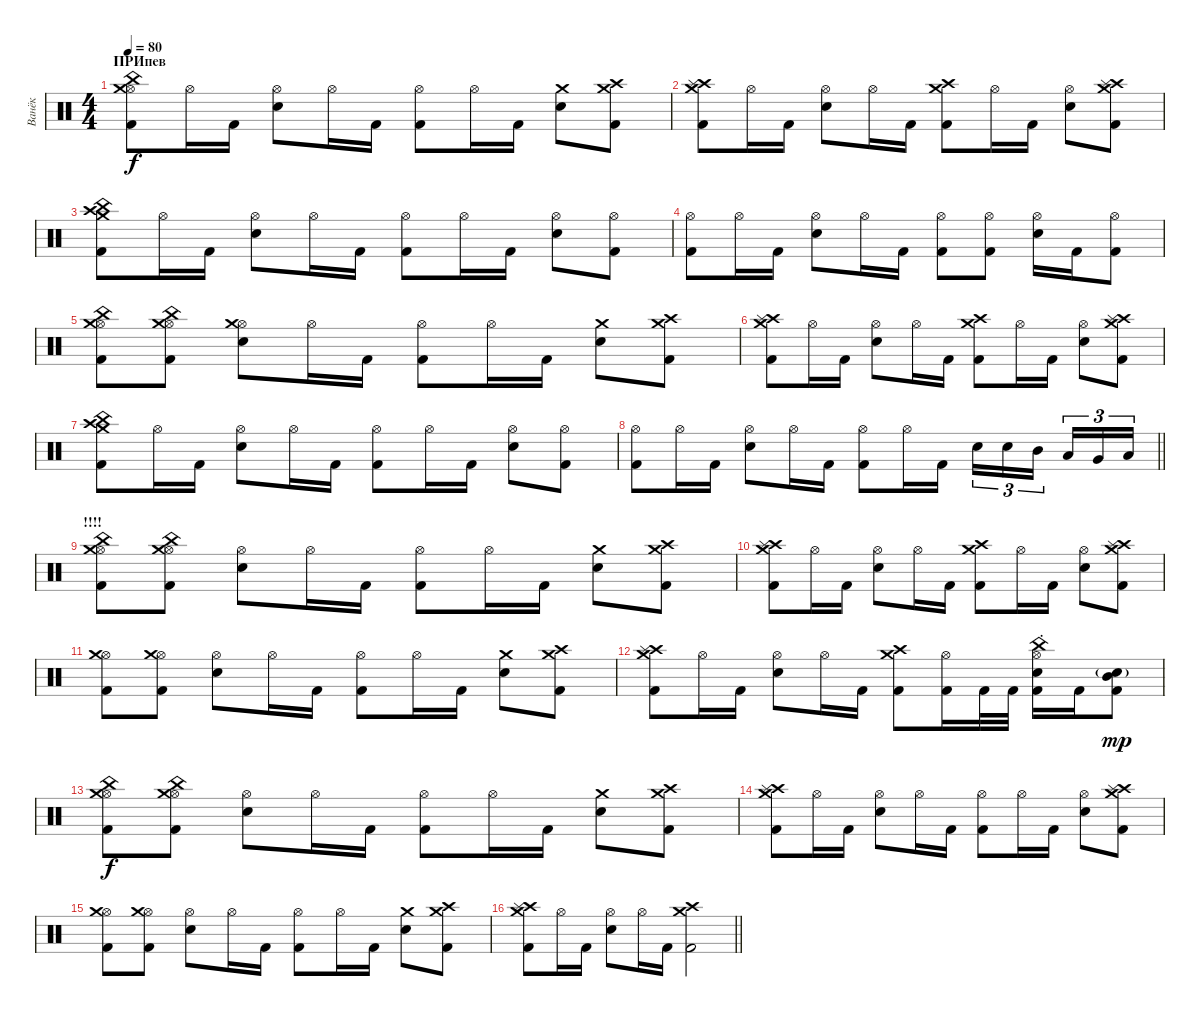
\track ("Ванёк" "Ванёк") {instrument percussion}
\staff {score}
\articulation defaults
\ts (4 4)
\section ("" "ПРИпев")
\tempo 80
\clef neutral
\ks c
("Hi-Hat (open)" "Crash medium (hit)" "China (hit)" "Kick (hit) 2").8{dy f} "Hi-Hat (open)".16 "Kick (hit) 2".16 ("Hi-Hat (open)" "Snare (hit) 2").8 "Hi-Hat (open)".16 "Kick (hit) 2".16 ("Hi-Hat (open)" "Kick (hit) 2").8 "Hi-Hat (open)".16 "Kick (hit) 2".16 ("Crash medium (hit)" "Snare (hit) 2").8 ("Crash high (hit)" "Crash medium (hit)" "Kick (hit) 2").8 |
("Crash high (hit)" "Crash medium (hit)" "Splash (hit)" "Kick (hit) 2").8 "Hi-Hat (open)".16 "Kick (hit) 2".16 ("Hi-Hat (open)" "Snare (hit) 2").8 "Hi-Hat (open)".16 "Kick (hit) 2".16 ("Crash high (hit)" "Crash medium (hit)" "Kick (hit) 2").8 "Hi-Hat (open)".16 "Kick (hit) 2".16 ("Hi-Hat (open)" "Snare (hit) 2").8 ("Crash high (hit)" "Crash medium (hit)" "Splash (hit)" "Kick (hit) 2").8 |
("Crash high (hit)" "Crash medium (hit)" "China (hit)" "Kick (hit) 2").8 "Hi-Hat (open)".16 "Kick (hit) 2".16 ("Hi-Hat (open)" "Snare (hit) 2").8 "Hi-Hat (open)".16 "Kick (hit) 2".16 ("Hi-Hat (open)" "Kick (hit) 2").8 "Hi-Hat (open)".16 "Kick (hit) 2".16 ("Hi-Hat (open)" "Snare (hit) 2").8 ("Hi-Hat (open)" "Kick (hit) 2").8 |
("Hi-Hat (open)" "Kick (hit) 2").8 "Hi-Hat (open)".16 "Kick (hit) 2".16 ("Hi-Hat (open)" "Snare (hit) 2").8 "Hi-Hat (open)".16 "Kick (hit) 2".16 ("Hi-Hat (open)" "Kick (hit) 2").8 ("Hi-Hat (open)" "Kick (hit) 2").8 ("Hi-Hat (open)" "Snare (hit) 2").16 "Kick (hit) 2".16 ("Hi-Hat (open)" "Kick (hit) 2").8 |
("Hi-Hat (open)" "Crash medium (hit)" "China (hit)" "Kick (hit) 2").8 ("Hi-Hat (open)" "Crash medium (hit)" "China (hit)" "Kick (hit) 2").8 ("Hi-Hat (open)" "Crash medium (hit)" "Snare (hit) 2").8 "Hi-Hat (open)".16 "Kick (hit) 2".16 ("Hi-Hat (open)" "Kick (hit) 2").8 "Hi-Hat (open)".16 "Kick (hit) 2".16 ("Crash medium (hit)" "Snare (hit) 2").8 ("Crash high (hit)" "Crash medium (hit)" "Kick (hit) 2").8 |
("Crash high (hit)" "Crash medium (hit)" "Splash (hit)" "Kick (hit) 2").8 "Hi-Hat (open)".16 "Kick (hit) 2".16 ("Hi-Hat (open)" "Snare (hit) 2").8 "Hi-Hat (open)".16 "Kick (hit) 2".16 ("Crash high (hit)" "Crash medium (hit)" "Kick (hit) 2").8 "Hi-Hat (open)".16 "Kick (hit) 2".16 ("Hi-Hat (open)" "Snare (hit) 2").8 ("Crash high (hit)" "Crash medium (hit)" "Splash (hit)" "Kick (hit) 2").8 |
("Crash high (hit)" "Crash medium (hit)" "China (hit)" "Kick (hit) 2").8 "Hi-Hat (open)".16 "Kick (hit) 2".16 ("Hi-Hat (open)" "Snare (hit) 2").8 "Hi-Hat (open)".16 "Kick (hit) 2".16 ("Hi-Hat (open)" "Kick (hit) 2").8 "Hi-Hat (open)".16 "Kick (hit) 2".16 ("Hi-Hat (open)" "Snare (hit) 2").8 ("Hi-Hat (open)" "Kick (hit) 2").8 |
\barLineRight lightlight
("Hi-Hat (open)" "Kick (hit) 2").8 "Hi-Hat (open)".16 "Kick (hit) 2".16 ("Hi-Hat (open)" "Snare (hit) 2").8 "Hi-Hat (open)".16 "Kick (hit) 2".16 ("Hi-Hat (open)" "Kick (hit) 2").8 "Hi-Hat (open)".16 "Kick (hit) 2".16 "Snare (hit) 2".16{tu (3 2)} "Snare (hit) 2".16{tu (3 2)} "Mid Tom (hit)".16{tu (3 2) beam splitsecondary} "Low Tom (hit)".16{tu (3 2)} "Very Low Tom (hit)".16{tu (3 2)} "Low Floor Tom (hit)".16{tu (3 2)} |
\section ("" "!!!!")
("Hi-Hat (open)" "Crash medium (hit)" "China (hit)" "Kick (hit) 2").8 ("Hi-Hat (open)" "Crash medium (hit)" "China (hit)" "Kick (hit) 2").8 ("Hi-Hat (open)" "Snare (hit) 2").8 "Hi-Hat (open)".16 "Kick (hit) 2".16 ("Hi-Hat (open)" "Kick (hit) 2").8 "Hi-Hat (open)".16 "Kick (hit) 2".16 ("Crash medium (hit)" "Snare (hit) 2").8 ("Crash high (hit)" "Crash medium (hit)" "Kick (hit) 2").8 |
("Crash high (hit)" "Crash medium (hit)" "Splash (hit)" "Kick (hit) 2").8 "Hi-Hat (open)".16 "Kick (hit) 2".16 ("Hi-Hat (open)" "Snare (hit) 2").8 "Hi-Hat (open)".16 "Kick (hit) 2".16 ("Crash high (hit)" "Crash medium (hit)" "Kick (hit) 2").8 "Hi-Hat (open)".16 "Kick (hit) 2".16 ("Hi-Hat (open)" "Snare (hit) 2").8 ("Crash high (hit)" "Crash medium (hit)" "Splash (hit)" "Kick (hit) 2").8 |
("Hi-Hat (open)" "Crash medium (hit)" "Kick (hit) 2").8 ("Hi-Hat (open)" "Crash medium (hit)" "Kick (hit) 2").8 ("Hi-Hat (open)" "Snare (hit) 2").8 "Hi-Hat (open)".16 "Kick (hit) 2".16 ("Hi-Hat (open)" "Kick (hit) 2").8 "Hi-Hat (open)".16 "Kick (hit) 2".16 ("Crash medium (hit)" "Snare (hit) 2").8 ("Crash high (hit)" "Crash medium (hit)" "Kick (hit) 2").8 |
("Crash high (hit)" "Crash medium (hit)" "Splash (hit)" "Kick (hit) 2").8 "Hi-Hat (open)".16 "Kick (hit) 2".16 ("Hi-Hat (open)" "Snare (hit) 2").8 "Hi-Hat (open)".16 "Kick (hit) 2".16 ("Crash high (hit)" "Crash medium (hit)" "Kick (hit) 2").8 ("Hi-Hat (open)" "Kick (hit) 2").16 "Kick (hit) 2".32 "Kick (hit) 2".32 ("Hi-Hat (open)" "China (hit)"{st} "Snare (hit) 2" "Kick (hit) 2").16 "Kick (hit) 2".16 ("Snare (hit) 2"{g} "Mid Tom (hit)" "Kick (hit) 2").8{dy mp} |
("Hi-Hat (open)" "Crash medium (hit)" "China (hit)" "Kick (hit) 2").8{dy f} ("Hi-Hat (open)" "Crash medium (hit)" "China (hit)" "Kick (hit) 2").8 ("Hi-Hat (open)" "Snare (hit) 2").8 "Hi-Hat (open)".16 "Kick (hit) 2".16 ("Hi-Hat (open)" "Kick (hit) 2").8 "Hi-Hat (open)".16 "Kick (hit) 2".16 ("Crash medium (hit)" "Snare (hit) 2").8 ("Crash high (hit)" "Crash medium (hit)" "Kick (hit) 2").8 |
("Crash high (hit)" "Crash medium (hit)" "Splash (hit)" "Kick (hit) 2").8 "Hi-Hat (open)".16 "Kick (hit) 2".16 ("Hi-Hat (open)" "Snare (hit) 2").8 "Hi-Hat (open)".16 "Kick (hit) 2".16 ("Hi-Hat (open)" "Kick (hit) 2").8 "Hi-Hat (open)".16 "Kick (hit) 2".16 ("Hi-Hat (open)" "Snare (hit) 2").8 ("Crash high (hit)" "Crash medium (hit)" "Splash (hit)" "Kick (hit) 2").8 |
("Hi-Hat (open)" "Crash medium (hit)" "Kick (hit) 2").8 ("Hi-Hat (open)" "Crash medium (hit)" "Kick (hit) 2").8 ("Hi-Hat (open)" "Snare (hit) 2").8 "Hi-Hat (open)".16 "Kick (hit) 2".16 ("Hi-Hat (open)" "Kick (hit) 2").8 "Hi-Hat (open)".16 "Kick (hit) 2".16 ("Crash medium (hit)" "Snare (hit) 2").8 ("Crash high (hit)" "Crash medium (hit)" "Kick (hit) 2").8 |
\barLineRight lightlight
("Crash high (hit)" "Crash medium (hit)" "Splash (hit)" "Kick (hit) 2").8 "Hi-Hat (open)".16 "Kick (hit) 2".16 ("Hi-Hat (open)" "Snare (hit) 2").8 "Hi-Hat (open)".16 "Kick (hit) 2".16 ("Crash high (hit)" "Crash medium (hit)" "Kick (hit) 2").2
